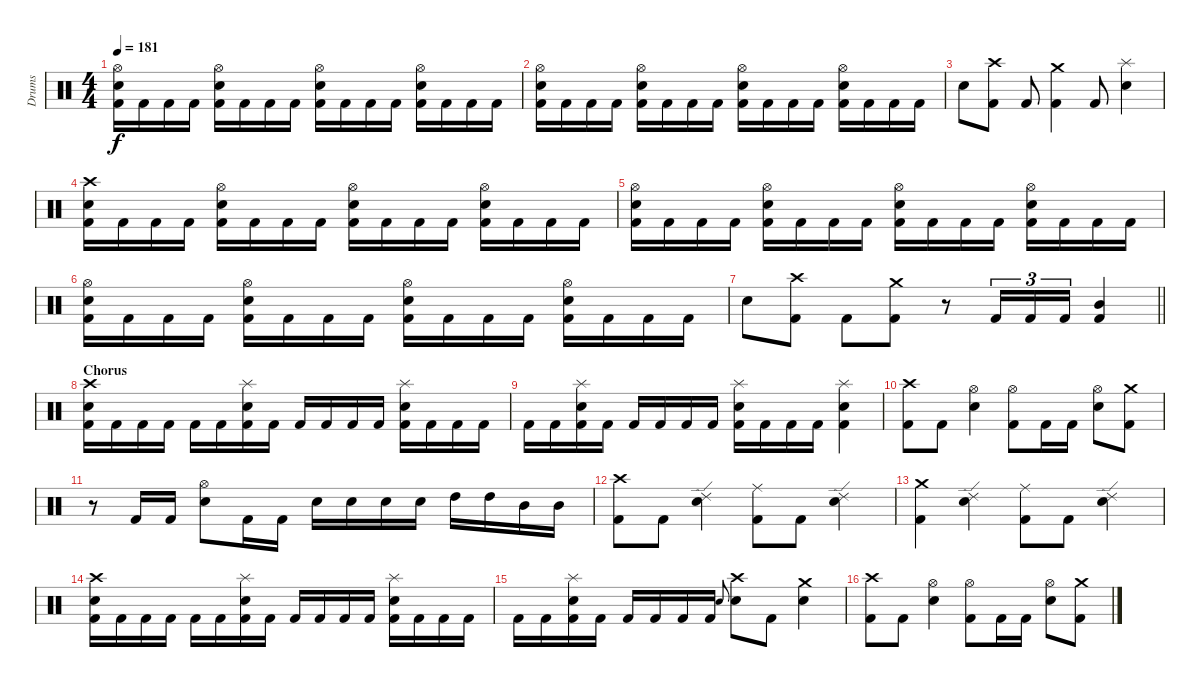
\track ("Drums" "Drums") {instrument percussion}
\staff {score}
\articulation defaults
\ts (4 4)
\tempo 181
\clef neutral
\ks c
("Hi-Hat (open)" "Snare (hit) 2" "Kick (hit) 2").16{dy f} "Kick (hit) 2".16 "Kick (hit) 2".16 "Kick (hit) 2".16 ("Hi-Hat (open)" "Snare (hit) 2" "Kick (hit) 2").16 "Kick (hit) 2".16 "Kick (hit) 2".16 "Kick (hit) 2".16 ("Hi-Hat (open)" "Snare (hit) 2" "Kick (hit) 2").16 "Kick (hit) 2".16 "Kick (hit) 2".16 "Kick (hit) 2".16 ("Hi-Hat (open)" "Snare (hit) 2" "Kick (hit) 2").16 "Kick (hit) 2".16 "Kick (hit) 2".16 "Kick (hit) 2".16 |
("Hi-Hat (open)" "Snare (hit) 2" "Kick (hit) 2").16 "Kick (hit) 2".16 "Kick (hit) 2".16 "Kick (hit) 2".16 ("Hi-Hat (open)" "Snare (hit) 2" "Kick (hit) 2").16 "Kick (hit) 2".16 "Kick (hit) 2".16 "Kick (hit) 2".16 ("Hi-Hat (open)" "Snare (hit) 2" "Kick (hit) 2").16 "Kick (hit) 2".16 "Kick (hit) 2".16 "Kick (hit) 2".16 ("Hi-Hat (open)" "Snare (hit) 2" "Kick (hit) 2").16 "Kick (hit) 2".16 "Kick (hit) 2".16 "Kick (hit) 2".16 |
"Snare (hit) 2".8 ("Crash high (hit)" "Kick (hit) 2").8 "Kick (hit) 2".8 ("Crash medium (hit)" "Kick (hit) 2").4 "Kick (hit) 2".8 ("Splash (hit)" "Snare (hit) 2").4 |
("Crash high (hit)" "Snare (hit) 2" "Kick (hit) 2").16 "Kick (hit) 2".16 "Kick (hit) 2".16 "Kick (hit) 2".16 ("Hi-Hat (open)" "Snare (hit) 2" "Kick (hit) 2").16 "Kick (hit) 2".16 "Kick (hit) 2".16 "Kick (hit) 2".16 ("Hi-Hat (open)" "Snare (hit) 2" "Kick (hit) 2").16 "Kick (hit) 2".16 "Kick (hit) 2".16 "Kick (hit) 2".16 ("Hi-Hat (open)" "Snare (hit) 2" "Kick (hit) 2").16 "Kick (hit) 2".16 "Kick (hit) 2".16 "Kick (hit) 2".16 |
("Hi-Hat (open)" "Snare (hit) 2" "Kick (hit) 2").16 "Kick (hit) 2".16 "Kick (hit) 2".16 "Kick (hit) 2".16 ("Hi-Hat (open)" "Snare (hit) 2" "Kick (hit) 2").16 "Kick (hit) 2".16 "Kick (hit) 2".16 "Kick (hit) 2".16 ("Hi-Hat (open)" "Snare (hit) 2" "Kick (hit) 2").16 "Kick (hit) 2".16 "Kick (hit) 2".16 "Kick (hit) 2".16 ("Hi-Hat (open)" "Snare (hit) 2" "Kick (hit) 2").16 "Kick (hit) 2".16 "Kick (hit) 2".16 "Kick (hit) 2".16 |
("Hi-Hat (open)" "Snare (hit) 2" "Kick (hit) 2").16 "Kick (hit) 2".16 "Kick (hit) 2".16 "Kick (hit) 2".16 ("Hi-Hat (open)" "Snare (hit) 2" "Kick (hit) 2").16 "Kick (hit) 2".16 "Kick (hit) 2".16 "Kick (hit) 2".16 ("Hi-Hat (open)" "Snare (hit) 2" "Kick (hit) 2").16 "Kick (hit) 2".16 "Kick (hit) 2".16 "Kick (hit) 2".16 ("Hi-Hat (open)" "Snare (hit) 2" "Kick (hit) 2").16 "Kick (hit) 2".16 "Kick (hit) 2".16 "Kick (hit) 2".16 |
\barLineRight lightlight "Snare (hit) 2".8
("Crash high (hit)" "Kick (hit) 2").8 "Kick (hit) 2".8 ("Crash medium (hit)" "Kick (hit) 2").8 r.8 "Kick (hit) 2".16{tu (3 2)} "Kick (hit) 2".16{tu (3 2)} "Kick (hit) 2".16{tu (3 2)} ("Mid Tom (hit)" "Kick (hit) 2").4 |
\section ("" "Chorus")
("Crash high (hit)" "Snare (hit) 2" "Kick (hit) 2").16 "Kick (hit) 2".16 "Kick (hit) 2".16 "Kick (hit) 2".16 "Kick (hit) 2".16 "Kick (hit) 2".16 ("Splash (hit)" "Snare (hit) 2" "Kick (hit) 2").16 "Kick (hit) 2".16 "Kick (hit) 2".16 "Kick (hit) 2".16 "Kick (hit) 2".16 "Kick (hit) 2".16 ("Splash (hit)" "Snare (hit) 2" "Kick (hit) 2").16 "Kick (hit) 2".16 "Kick (hit) 2".16 "Kick (hit) 2".16 |
"Kick (hit) 2".16 "Kick (hit) 2".16 ("Splash (hit)" "Snare (hit) 2" "Kick (hit) 2").16 "Kick (hit) 2".16 "Kick (hit) 2".16 "Kick (hit) 2".16 "Kick (hit) 2".16 "Kick (hit) 2".16 ("Splash (hit)" "Snare (hit) 2" "Kick (hit) 2").16 "Kick (hit) 2".16 "Kick (hit) 2".16 "Kick (hit) 2".16 ("Splash (hit)" "Snare (hit) 2" "Kick (hit) 2").4 |
("Crash high (hit)" "Kick (hit) 2").8 "Kick (hit) 2".8 ("Hi-Hat (open)" "Snare (hit) 2").4 ("Hi-Hat (open)" "Kick (hit) 2").8 "Kick (hit) 2".16 "Kick (hit) 2".16 ("Hi-Hat (open)" "Snare (hit) 2").8 ("Crash medium (hit)" "Kick (hit) 2").8 |
r.8 "Kick (hit) 2".16 "Kick (hit) 2".16 ("Hi-Hat (open)" "Snare (hit) 2").8 "Kick (hit) 2".16 "Kick (hit) 2".16 "Snare (hit) 2".16 "Snare (hit) 2".16 "Snare (hit) 2".16 "Snare (hit) 2".16 "High Tom (hit)".16 "High Tom (hit)".16 "Mid Tom (hit)".16 "Mid Tom (hit)".16 |
("Crash high (hit)" "Kick (hit) 2").8 "Kick (hit) 2".8 ("Ride (edge) 2" "Snare (hit) 2").4 ("Ride (middle)" "Kick (hit) 2").8 "Kick (hit) 2".8 ("Ride (edge) 2" "Snare (hit) 2").4 |
("Crash medium (hit)" "Kick (hit) 2").4 ("Ride (edge) 2" "Snare (hit) 2").4 ("Ride (middle)" "Kick (hit) 2").8 "Kick (hit) 2".8 ("Ride (edge) 2" "Snare (hit) 2").4 |
("Crash high (hit)" "Snare (hit) 2" "Kick (hit) 2").16 "Kick (hit) 2".16 "Kick (hit) 2".16 "Kick (hit) 2".16 "Kick (hit) 2".16 "Kick (hit) 2".16 ("Splash (hit)" "Snare (hit) 2" "Kick (hit) 2").16 "Kick (hit) 2".16 "Kick (hit) 2".16 "Kick (hit) 2".16 "Kick (hit) 2".16 "Kick (hit) 2".16 ("Splash (hit)" "Snare (hit) 2" "Kick (hit) 2").16 "Kick (hit) 2".16 "Kick (hit) 2".16 "Kick (hit) 2".16 |
"Kick (hit) 2".16 "Kick (hit) 2".16 ("Splash (hit)" "Snare (hit) 2" "Kick (hit) 2").16 "Kick (hit) 2".16 "Kick (hit) 2".16 "Kick (hit) 2".16 "Kick (hit) 2".16 "Kick (hit) 2".16 "Snare (hit) 2".8{gr onbeat} ("Crash high (hit)" "Snare (hit) 2").8 "Kick (hit) 2".8 ("Crash medium (hit)" "Snare (hit) 2").4 |
("Crash high (hit)" "Kick (hit) 2").8 "Kick (hit) 2".8 ("Hi-Hat (open)" "Snare (hit) 2").4 ("Hi-Hat (open)" "Kick (hit) 2").8 "Kick (hit) 2".16 "Kick (hit) 2".16 ("Hi-Hat (open)" "Snare (hit) 2").8 ("Crash medium (hit)" "Kick (hit) 2").8
